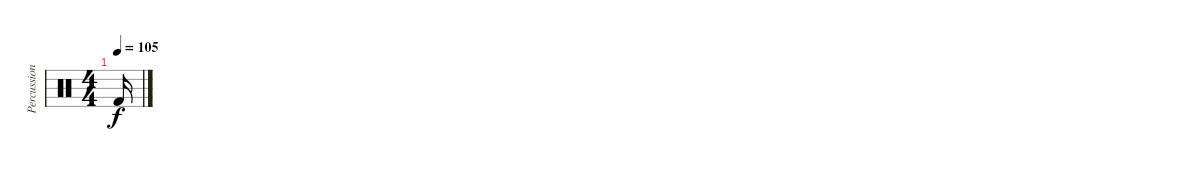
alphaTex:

\track ("Percussion" "Percussion") {instrument percussion}
\staff {score}
\articulation defaults
\ts (4 4)
\tempo 105
\clef neutral
\ks c "Kick (hit) 2".16{dy f}
